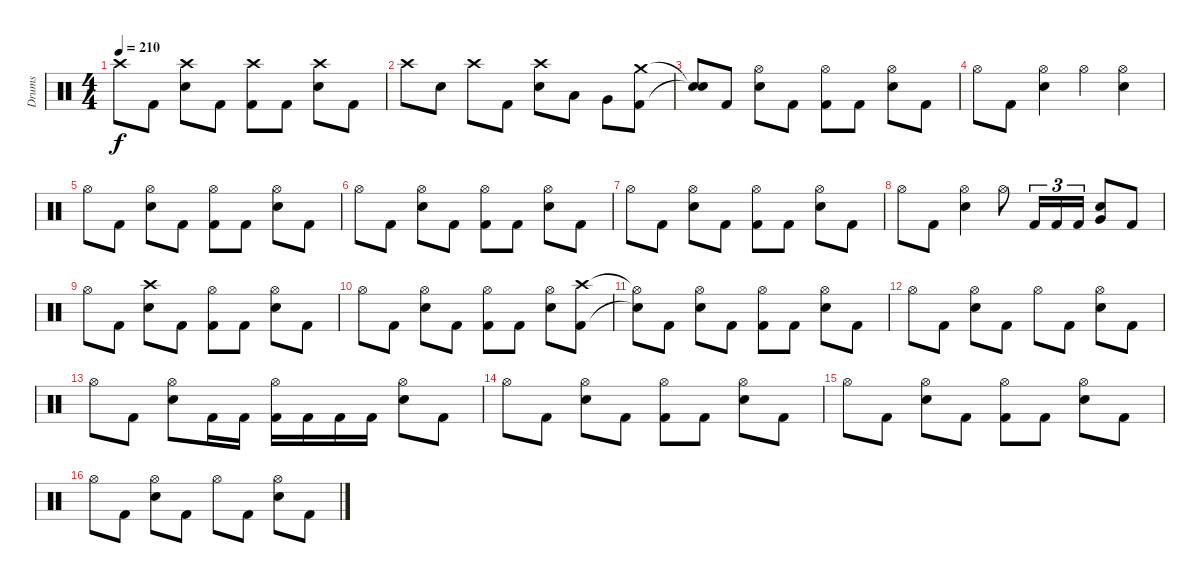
\track ("Drums" "Drums") {instrument percussion}
\staff {score}
\articulation defaults
\ts (4 4)
\tempo 210
\clef neutral
\ks c "Crash high (hit)".8{dy f} "Kick (hit) 2".8
("Crash high (hit)" "Electric Snare (hit)").8 "Kick (hit) 2".8 ("Crash high (hit)" "Kick (hit) 2").8 "Kick (hit) 2".8 ("Crash high (hit)" "Electric Snare (hit)").8 "Kick (hit) 2".8 |
"Crash high (hit)".8 "Electric Snare (hit)".8 "Crash high (hit)".8 "Kick (hit) 2".8 ("Crash high (hit)" "Electric Snare (hit)").8 "Low Tom (hit)".8 "Very Low Tom (hit)".8 ("Crash medium (hit)" "Kick (hit) 2").8 |
("Snare (hit)"{t} "Snare (hit)"{t}).8 "Kick (hit) 2".8 ("Hi-Hat (open)" "Electric Snare (hit)").8 "Kick (hit) 2".8 ("Hi-Hat (open)" "Kick (hit) 2").8 "Kick (hit) 2".8 ("Hi-Hat (open)" "Electric Snare (hit)").8 "Kick (hit) 2".8 |
"Hi-Hat (open)".8 "Kick (hit) 2".8 ("Hi-Hat (open)" "Electric Snare (hit)").4 "Hi-Hat (open)".4 ("Hi-Hat (open)" "Electric Snare (hit)").4 |
"Hi-Hat (open)".8 "Kick (hit) 2".8 ("Hi-Hat (open)" "Electric Snare (hit)").8 "Kick (hit) 2".8 ("Hi-Hat (open)" "Kick (hit) 2").8 "Kick (hit) 2".8 ("Hi-Hat (open)" "Electric Snare (hit)").8 "Kick (hit) 2".8 |
"Hi-Hat (open)".8 "Kick (hit) 2".8 ("Hi-Hat (open)" "Electric Snare (hit)").8 "Kick (hit) 2".8 ("Hi-Hat (open)" "Kick (hit) 2").8 "Kick (hit) 2".8 ("Hi-Hat (open)" "Electric Snare (hit)").8 "Kick (hit) 2".8 |
"Hi-Hat (open)".8 "Kick (hit) 2".8 ("Hi-Hat (open)" "Electric Snare (hit)").8 "Kick (hit) 2".8 ("Hi-Hat (open)" "Kick (hit) 2").8 "Kick (hit) 2".8 ("Hi-Hat (open)" "Electric Snare (hit)").8 "Kick (hit) 2".8 |
"Hi-Hat (open)".8 "Kick (hit) 2".8 ("Hi-Hat (open)" "Electric Snare (hit)").4 "Hi-Hat (open)".8 "Kick (hit) 2".16{tu (3 2)} "Kick (hit) 2".16{tu (3 2)} "Kick (hit) 2".16{tu (3 2)} ("Very Low Tom (hit)" "Electric Snare (hit)").8 "Kick (hit) 2".8 |
"Hi-Hat (open)".8 "Kick (hit) 2".8 ("Crash high (hit)" "Electric Snare (hit)").8 "Kick (hit) 2".8 ("Hi-Hat (open)" "Kick (hit) 2").8 "Kick (hit) 2".8 ("Hi-Hat (open)" "Electric Snare (hit)").8 "Kick (hit) 2".8 |
"Hi-Hat (open)".8 "Kick (hit) 2".8 ("Hi-Hat (open)" "Electric Snare (hit)").8 "Kick (hit) 2".8 ("Hi-Hat (open)" "Kick (hit) 2").8 "Kick (hit) 2".8 ("Hi-Hat (open)" "Electric Snare (hit)").8 ("Crash high (hit)" "Kick (hit) 2").8 |
("Hi-Hat (open)"{t} "Snare (hit)"{t}).8 "Kick (hit) 2".8 ("Hi-Hat (open)" "Electric Snare (hit)").8 "Kick (hit) 2".8 ("Hi-Hat (open)" "Kick (hit) 2").8 "Kick (hit) 2".8 ("Hi-Hat (open)" "Electric Snare (hit)").8 "Kick (hit) 2".8 |
"Hi-Hat (open)".8 "Kick (hit) 2".8 ("Hi-Hat (open)" "Electric Snare (hit)").8 "Kick (hit) 2".8 "Hi-Hat (open)".8 "Kick (hit) 2".8 ("Hi-Hat (open)" "Electric Snare (hit)").8 "Kick (hit) 2".8 |
"Hi-Hat (open)".8 "Kick (hit) 2".8 ("Hi-Hat (open)" "Electric Snare (hit)").8 "Kick (hit) 2".16 "Kick (hit) 2".16 ("Hi-Hat (open)" "Kick (hit) 2").16 "Kick (hit) 2".16 "Kick (hit) 2".16 "Kick (hit) 2".16 ("Hi-Hat (open)" "Electric Snare (hit)").8 "Kick (hit) 2".8 |
"Hi-Hat (open)".8 "Kick (hit) 2".8 ("Hi-Hat (open)" "Electric Snare (hit)").8 "Kick (hit) 2".8 ("Hi-Hat (open)" "Kick (hit) 2").8 "Kick (hit) 2".8 ("Hi-Hat (open)" "Electric Snare (hit)").8 "Kick (hit) 2".8 |
"Hi-Hat (open)".8 "Kick (hit) 2".8 ("Hi-Hat (open)" "Electric Snare (hit)").8 "Kick (hit) 2".8 ("Hi-Hat (open)" "Kick (hit) 2").8 "Kick (hit) 2".8 ("Hi-Hat (open)" "Electric Snare (hit)").8 "Kick (hit) 2".8 |
"Hi-Hat (open)".8 "Kick (hit) 2".8 ("Hi-Hat (open)" "Electric Snare (hit)").8 "Kick (hit) 2".8 "Hi-Hat (open)".8 "Kick (hit) 2".8 ("Hi-Hat (open)" "Electric Snare (hit)").8 "Kick (hit) 2".8
